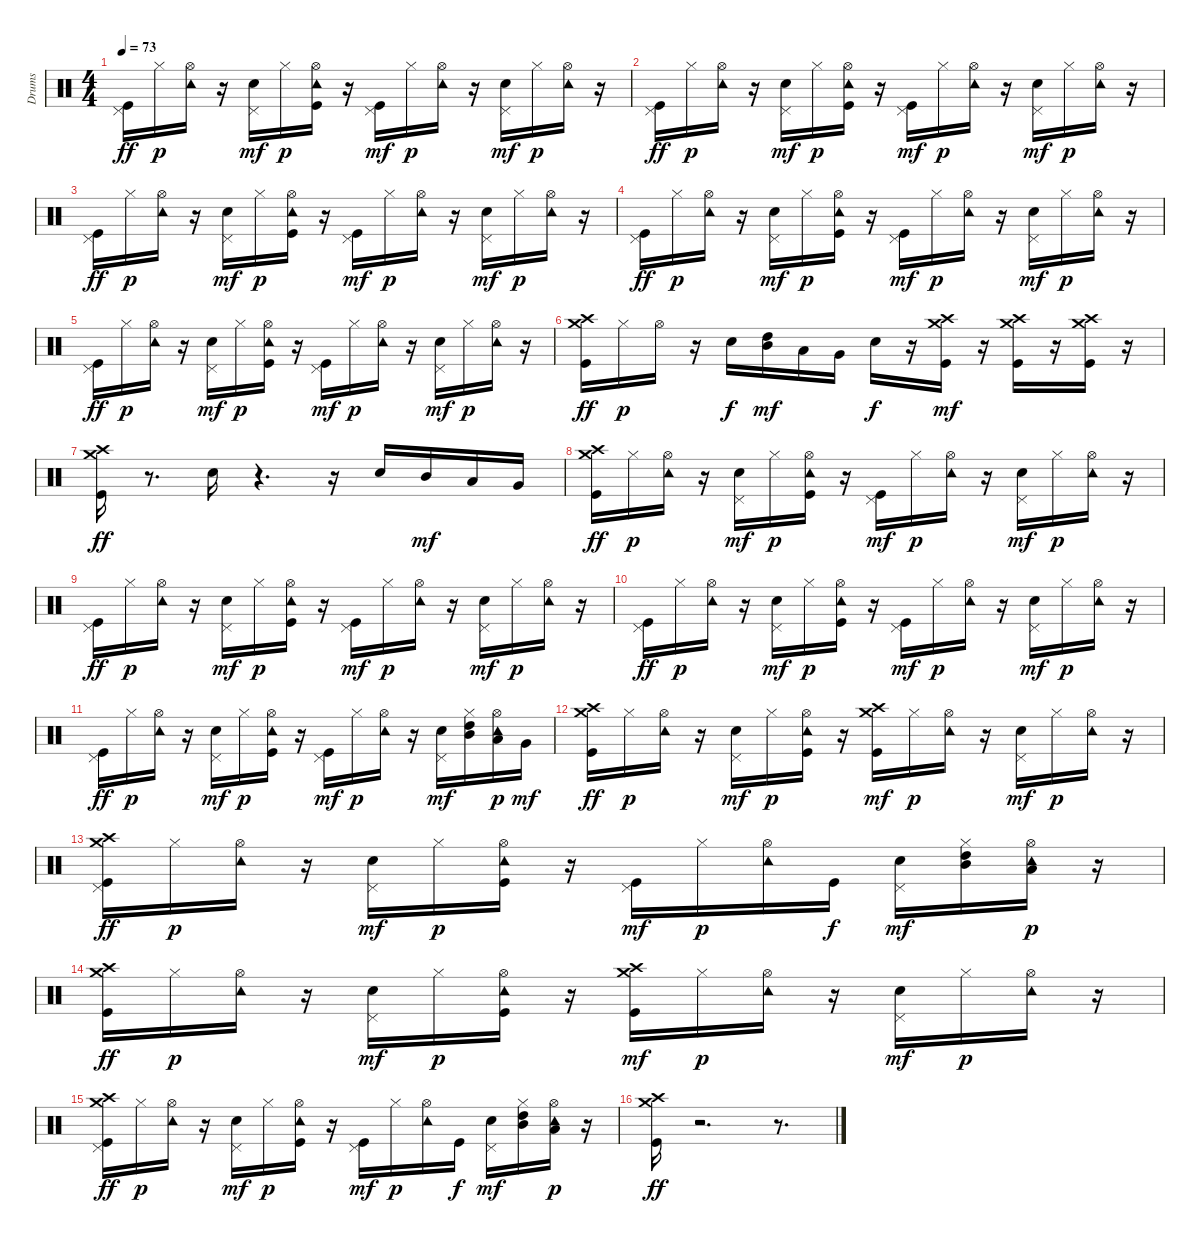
\track ("Drums" "Drums") {instrument percussion}
\staff {score}
\articulation defaults
\ts (4 4)
\tempo 73
\clef neutral
\ks c
("Pedal Hi-Hat (hit)" "Kick (hit)").16{dy ff} "Hi-Hat (closed)".16{dy p} ("Tambourine (hit)" "Hi-Hat (open)").16 r.16 ("Pedal Hi-Hat (hit)" "Snare (hit) 2").16{dy mf} "Hi-Hat (closed)".16{dy p} ("Tambourine (hit)" "Hi-Hat (open)" "Kick (hit)").16 r.16 ("Pedal Hi-Hat (hit)" "Kick (hit)").16{dy mf} "Hi-Hat (closed)".16{dy p} ("Tambourine (hit)" "Hi-Hat (open)").16 r.16 ("Pedal Hi-Hat (hit)" "Snare (hit) 2").16{dy mf} "Hi-Hat (closed)".16{dy p} ("Tambourine (hit)" "Hi-Hat (open)").16 r.16 |
("Pedal Hi-Hat (hit)" "Kick (hit)").16{dy ff} "Hi-Hat (closed)".16{dy p} ("Tambourine (hit)" "Hi-Hat (open)").16 r.16 ("Pedal Hi-Hat (hit)" "Snare (hit) 2").16{dy mf} "Hi-Hat (closed)".16{dy p} ("Tambourine (hit)" "Hi-Hat (open)" "Kick (hit)").16 r.16 ("Pedal Hi-Hat (hit)" "Kick (hit)").16{dy mf} "Hi-Hat (closed)".16{dy p} ("Tambourine (hit)" "Hi-Hat (open)").16 r.16 ("Pedal Hi-Hat (hit)" "Snare (hit) 2").16{dy mf} "Hi-Hat (closed)".16{dy p} ("Tambourine (hit)" "Hi-Hat (open)").16 r.16 |
("Pedal Hi-Hat (hit)" "Kick (hit)").16{dy ff} "Hi-Hat (closed)".16{dy p} ("Tambourine (hit)" "Hi-Hat (open)").16 r.16 ("Pedal Hi-Hat (hit)" "Snare (hit) 2").16{dy mf} "Hi-Hat (closed)".16{dy p} ("Tambourine (hit)" "Hi-Hat (open)" "Kick (hit)").16 r.16 ("Pedal Hi-Hat (hit)" "Kick (hit)").16{dy mf} "Hi-Hat (closed)".16{dy p} ("Tambourine (hit)" "Hi-Hat (open)").16 r.16 ("Pedal Hi-Hat (hit)" "Snare (hit) 2").16{dy mf} "Hi-Hat (closed)".16{dy p} ("Tambourine (hit)" "Hi-Hat (open)").16 r.16 |
("Pedal Hi-Hat (hit)" "Kick (hit)").16{dy ff} "Hi-Hat (closed)".16{dy p} ("Tambourine (hit)" "Hi-Hat (open)").16 r.16 ("Pedal Hi-Hat (hit)" "Snare (hit) 2").16{dy mf} "Hi-Hat (closed)".16{dy p} ("Tambourine (hit)" "Hi-Hat (open)" "Kick (hit)").16 r.16 ("Pedal Hi-Hat (hit)" "Kick (hit)").16{dy mf} "Hi-Hat (closed)".16{dy p} ("Tambourine (hit)" "Hi-Hat (open)").16 r.16 ("Pedal Hi-Hat (hit)" "Snare (hit) 2").16{dy mf} "Hi-Hat (closed)".16{dy p} ("Tambourine (hit)" "Hi-Hat (open)").16 r.16 |
("Pedal Hi-Hat (hit)" "Kick (hit)").16{dy ff} "Hi-Hat (closed)".16{dy p} ("Tambourine (hit)" "Hi-Hat (open)").16 r.16 ("Pedal Hi-Hat (hit)" "Snare (hit) 2").16{dy mf} "Hi-Hat (closed)".16{dy p} ("Tambourine (hit)" "Hi-Hat (open)" "Kick (hit)").16 r.16 ("Pedal Hi-Hat (hit)" "Kick (hit)").16{dy mf} "Hi-Hat (closed)".16{dy p} ("Tambourine (hit)" "Hi-Hat (open)").16 r.16 ("Pedal Hi-Hat (hit)" "Snare (hit) 2").16{dy mf} "Hi-Hat (closed)".16{dy p} ("Tambourine (hit)" "Hi-Hat (open)").16 r.16 |
("Crash high (hit)" "Crash medium (hit)" "Kick (hit)").16{dy ff} "Hi-Hat (closed)".16{dy p} "Hi-Hat (open)".16 r.16 "Snare (hit) 2".16{dy f} ("Mid Tom (hit)" "High Tom (hit)").16{dy mf} "Low Tom (hit)".16 "Very Low Tom (hit)".16 "Snare (hit) 2".16{dy f} r.16 ("Crash high (hit)" "Crash medium (hit)" "Kick (hit)").16{dy mf} r.16 ("Crash high (hit)" "Crash medium (hit)" "Kick (hit)").16 r.16 ("Crash high (hit)" "Crash medium (hit)" "Kick (hit)").16 r.16 |
("Crash medium (hit)" "Crash high (hit)" "Kick (hit)").16{dy ff} r.8{d} "Snare (hit) 2".16 r.4{d} r.16 "Snare (hit) 2".16 "Mid Tom (hit)".16{dy mf} "Low Tom (hit)".16 "Very Low Tom (hit)".16 |
("Crash high (hit)" "Crash medium (hit)" "Kick (hit)").16{dy ff} "Hi-Hat (closed)".16{dy p} ("Tambourine (hit)" "Hi-Hat (open)").16 r.16 ("Pedal Hi-Hat (hit)" "Snare (hit) 2").16{dy mf} "Hi-Hat (closed)".16{dy p} ("Tambourine (hit)" "Hi-Hat (open)" "Kick (hit)").16 r.16 ("Pedal Hi-Hat (hit)" "Kick (hit)").16{dy mf} "Hi-Hat (closed)".16{dy p} ("Tambourine (hit)" "Hi-Hat (open)").16 r.16 ("Pedal Hi-Hat (hit)" "Snare (hit) 2").16{dy mf} "Hi-Hat (closed)".16{dy p} ("Tambourine (hit)" "Hi-Hat (open)").16 r.16 |
("Pedal Hi-Hat (hit)" "Kick (hit)").16{dy ff} "Hi-Hat (closed)".16{dy p} ("Tambourine (hit)" "Hi-Hat (open)").16 r.16 ("Pedal Hi-Hat (hit)" "Snare (hit) 2").16{dy mf} "Hi-Hat (closed)".16{dy p} ("Tambourine (hit)" "Hi-Hat (open)" "Kick (hit)").16 r.16 ("Pedal Hi-Hat (hit)" "Kick (hit)").16{dy mf} "Hi-Hat (closed)".16{dy p} ("Tambourine (hit)" "Hi-Hat (open)").16 r.16 ("Pedal Hi-Hat (hit)" "Snare (hit) 2").16{dy mf} "Hi-Hat (closed)".16{dy p} ("Tambourine (hit)" "Hi-Hat (open)").16 r.16 |
("Pedal Hi-Hat (hit)" "Kick (hit)").16{dy ff} "Hi-Hat (closed)".16{dy p} ("Tambourine (hit)" "Hi-Hat (open)").16 r.16 ("Pedal Hi-Hat (hit)" "Snare (hit) 2").16{dy mf} "Hi-Hat (closed)".16{dy p} ("Tambourine (hit)" "Hi-Hat (open)" "Kick (hit)").16 r.16 ("Pedal Hi-Hat (hit)" "Kick (hit)").16{dy mf} "Hi-Hat (closed)".16{dy p} ("Tambourine (hit)" "Hi-Hat (open)").16 r.16 ("Pedal Hi-Hat (hit)" "Snare (hit) 2").16{dy mf} "Hi-Hat (closed)".16{dy p} ("Tambourine (hit)" "Hi-Hat (open)").16 r.16 |
("Pedal Hi-Hat (hit)" "Kick (hit)").16{dy ff} "Hi-Hat (closed)".16{dy p} ("Tambourine (hit)" "Hi-Hat (open)").16 r.16 ("Pedal Hi-Hat (hit)" "Snare (hit) 2").16{dy mf} "Hi-Hat (closed)".16{dy p} ("Tambourine (hit)" "Hi-Hat (open)" "Kick (hit)").16 r.16 ("Pedal Hi-Hat (hit)" "Kick (hit)").16{dy mf} "Hi-Hat (closed)".16{dy p} ("Tambourine (hit)" "Hi-Hat (open)").16 r.16 ("Pedal Hi-Hat (hit)" "Snare (hit) 2").16{dy mf} ("Mid Tom (hit)" "Hi-Hat (closed)" "High Tom (hit)").16 ("Tambourine (hit)" "Low Tom (hit)" "Hi-Hat (open)").16{dy p} "Very Low Tom (hit)".16{dy mf} |
("Crash medium (hit)" "Crash high (hit)" "Kick (hit)").16{dy ff} "Hi-Hat (closed)".16{dy p} ("Tambourine (hit)" "Hi-Hat (open)").16 r.16 ("Pedal Hi-Hat (hit)" "Snare (hit) 2").16{dy mf} "Hi-Hat (closed)".16{dy p} ("Tambourine (hit)" "Hi-Hat (open)" "Kick (hit)").16 r.16 ("Crash medium (hit)" "Crash high (hit)" "Kick (hit)").16{dy mf} "Hi-Hat (closed)".16{dy p} ("Tambourine (hit)" "Hi-Hat (open)").16 r.16 ("Pedal Hi-Hat (hit)" "Snare (hit) 2").16{dy mf} "Hi-Hat (closed)".16{dy p} ("Tambourine (hit)" "Hi-Hat (open)").16 r.16 |
("Pedal Hi-Hat (hit)" "Crash medium (hit)" "Crash high (hit)" "Kick (hit)").16{dy ff} "Hi-Hat (closed)".16{dy p} ("Tambourine (hit)" "Hi-Hat (open)").16 r.16 ("Pedal Hi-Hat (hit)" "Snare (hit) 2").16{dy mf} "Hi-Hat (closed)".16{dy p} ("Tambourine (hit)" "Hi-Hat (open)" "Kick (hit)").16 r.16 ("Pedal Hi-Hat (hit)" "Kick (hit)").16{dy mf} "Hi-Hat (closed)".16{dy p} ("Tambourine (hit)" "Hi-Hat (open)").16 "Kick (hit)".16{dy f} ("Pedal Hi-Hat (hit)" "Snare (hit) 2").16{dy mf} ("Mid Tom (hit)" "Hi-Hat (closed)" "High Tom (hit)").16 ("Tambourine (hit)" "Low Tom (hit)" "Hi-Hat (open)").16{dy p} r.16 |
("Crash medium (hit)" "Crash high (hit)" "Kick (hit)").16{dy ff} "Hi-Hat (closed)".16{dy p} ("Tambourine (hit)" "Hi-Hat (open)").16 r.16 ("Pedal Hi-Hat (hit)" "Snare (hit) 2").16{dy mf} "Hi-Hat (closed)".16{dy p} ("Tambourine (hit)" "Hi-Hat (open)" "Kick (hit)").16 r.16 ("Crash medium (hit)" "Crash high (hit)" "Kick (hit)").16{dy mf} "Hi-Hat (closed)".16{dy p} ("Tambourine (hit)" "Hi-Hat (open)").16 r.16 ("Pedal Hi-Hat (hit)" "Snare (hit) 2").16{dy mf} "Hi-Hat (closed)".16{dy p} ("Tambourine (hit)" "Hi-Hat (open)").16 r.16 |
("Pedal Hi-Hat (hit)" "Crash medium (hit)" "Crash high (hit)" "Kick (hit)").16{dy ff} "Hi-Hat (closed)".16{dy p} ("Tambourine (hit)" "Hi-Hat (open)").16 r.16 ("Pedal Hi-Hat (hit)" "Snare (hit) 2").16{dy mf} "Hi-Hat (closed)".16{dy p} ("Tambourine (hit)" "Hi-Hat (open)" "Kick (hit)").16 r.16 ("Pedal Hi-Hat (hit)" "Kick (hit)").16{dy mf} "Hi-Hat (closed)".16{dy p} ("Tambourine (hit)" "Hi-Hat (open)").16 "Kick (hit)".16{dy f} ("Pedal Hi-Hat (hit)" "Snare (hit) 2").16{dy mf} ("Mid Tom (hit)" "Hi-Hat (closed)" "High Tom (hit)").16 ("Tambourine (hit)" "Low Tom (hit)" "Hi-Hat (open)").16{dy p} r.16 |
("Crash medium (hit)" "Crash high (hit)" "Kick (hit)").16{dy ff} r.2{d} r.8{d}
